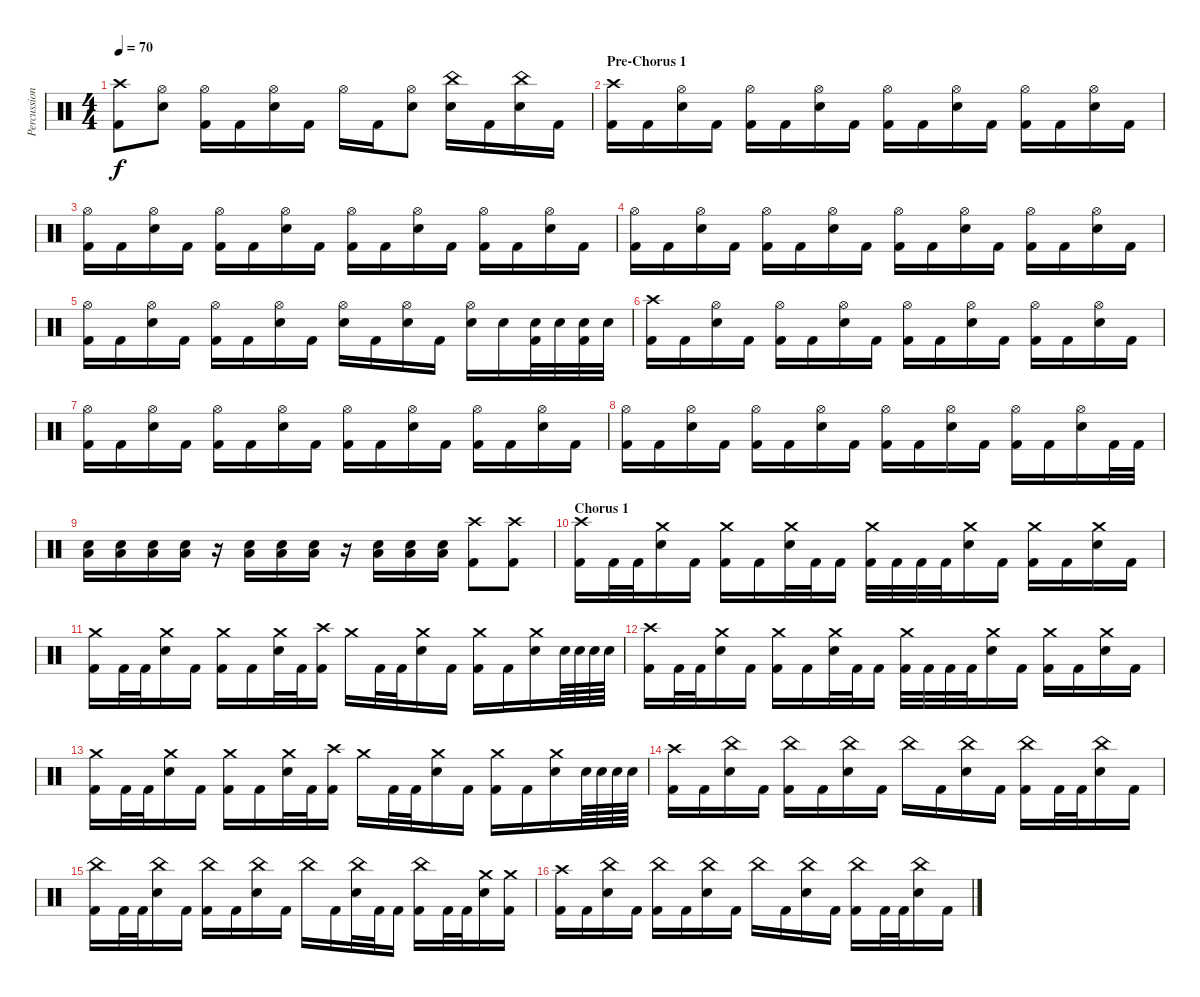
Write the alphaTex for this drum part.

\track ("Percussion" "Percussion") {instrument percussion}
\staff {score}
\articulation defaults
\ts (4 4)
\tempo 70
\clef neutral
\ks c
("Kick (hit) 2" "Crash high (hit)").8{dy f} ("Electric Snare (hit)" "Hi-Hat (open)").8 ("Kick (hit) 2" "Hi-Hat (open)").16 "Kick (hit) 2".16 ("Electric Snare (hit)" "Hi-Hat (open)").16 "Kick (hit) 2".16 "Hi-Hat (open)".16 "Kick (hit) 2".16 ("Electric Snare (hit)" "Hi-Hat (open)").8 ("Electric Snare (hit)" "China (hit)").16 "Kick (hit) 2".16 ("Electric Snare (hit)" "China (hit)").16 "Kick (hit) 2".16 |
\section ("" "Pre-Chorus 1")
("Kick (hit) 2" "Crash high (hit)").16 "Kick (hit) 2".16 ("Electric Snare (hit)" "Hi-Hat (open)").16 "Kick (hit) 2".16 ("Kick (hit) 2" "Hi-Hat (open)").16 "Kick (hit) 2".16 ("Electric Snare (hit)" "Hi-Hat (open)").16 "Kick (hit) 2".16 ("Kick (hit) 2" "Hi-Hat (open)").16 "Kick (hit) 2".16 ("Electric Snare (hit)" "Hi-Hat (open)").16 "Kick (hit) 2".16 ("Kick (hit) 2" "Hi-Hat (open)").16 "Kick (hit) 2".16 ("Electric Snare (hit)" "Hi-Hat (open)").16 "Kick (hit) 2".16 |
("Kick (hit) 2" "Hi-Hat (open)").16 "Kick (hit) 2".16 ("Electric Snare (hit)" "Hi-Hat (open)").16 "Kick (hit) 2".16 ("Kick (hit) 2" "Hi-Hat (open)").16 "Kick (hit) 2".16 ("Electric Snare (hit)" "Hi-Hat (open)").16 "Kick (hit) 2".16 ("Kick (hit) 2" "Hi-Hat (open)").16 "Kick (hit) 2".16 ("Electric Snare (hit)" "Hi-Hat (open)").16 "Kick (hit) 2".16 ("Kick (hit) 2" "Hi-Hat (open)").16 "Kick (hit) 2".16 ("Electric Snare (hit)" "Hi-Hat (open)").16 "Kick (hit) 2".16 |
("Kick (hit) 2" "Hi-Hat (open)").16 "Kick (hit) 2".16 ("Electric Snare (hit)" "Hi-Hat (open)").16 "Kick (hit) 2".16 ("Kick (hit) 2" "Hi-Hat (open)").16 "Kick (hit) 2".16 ("Electric Snare (hit)" "Hi-Hat (open)").16 "Kick (hit) 2".16 ("Kick (hit) 2" "Hi-Hat (open)").16 "Kick (hit) 2".16 ("Electric Snare (hit)" "Hi-Hat (open)").16 "Kick (hit) 2".16 ("Kick (hit) 2" "Hi-Hat (open)").16 "Kick (hit) 2".16 ("Electric Snare (hit)" "Hi-Hat (open)").16 "Kick (hit) 2".16 |
("Kick (hit) 2" "Hi-Hat (open)").16 "Kick (hit) 2".16 ("Electric Snare (hit)" "Hi-Hat (open)").16 "Kick (hit) 2".16 ("Kick (hit) 2" "Hi-Hat (open)").16 "Kick (hit) 2".16 ("Electric Snare (hit)" "Hi-Hat (open)").16 "Kick (hit) 2".16 ("Electric Snare (hit)" "Hi-Hat (open)").16 "Kick (hit) 2".16 ("Electric Snare (hit)" "Hi-Hat (open)").16 "Kick (hit) 2".16 ("Electric Snare (hit)" "Hi-Hat (open)").16 "Electric Snare (hit)".16 ("Electric Snare (hit)" "Kick (hit) 2").32 "Electric Snare (hit)".32 ("Electric Snare (hit)" "Kick (hit) 2").32 "Electric Snare (hit)".32 |
("Kick (hit) 2" "Crash high (hit)").16 "Kick (hit) 2".16 ("Electric Snare (hit)" "Hi-Hat (open)").16 "Kick (hit) 2".16 ("Kick (hit) 2" "Hi-Hat (open)").16 "Kick (hit) 2".16 ("Electric Snare (hit)" "Hi-Hat (open)").16 "Kick (hit) 2".16 ("Kick (hit) 2" "Hi-Hat (open)").16 "Kick (hit) 2".16 ("Electric Snare (hit)" "Hi-Hat (open)").16 "Kick (hit) 2".16 ("Kick (hit) 2" "Hi-Hat (open)").16 "Kick (hit) 2".16 ("Electric Snare (hit)" "Hi-Hat (open)").16 "Kick (hit) 2".16 |
("Kick (hit) 2" "Hi-Hat (open)").16 "Kick (hit) 2".16 ("Electric Snare (hit)" "Hi-Hat (open)").16 "Kick (hit) 2".16 ("Kick (hit) 2" "Hi-Hat (open)").16 "Kick (hit) 2".16 ("Electric Snare (hit)" "Hi-Hat (open)").16 "Kick (hit) 2".16 ("Kick (hit) 2" "Hi-Hat (open)").16 "Kick (hit) 2".16 ("Electric Snare (hit)" "Hi-Hat (open)").16 "Kick (hit) 2".16 ("Kick (hit) 2" "Hi-Hat (open)").16 "Kick (hit) 2".16 ("Electric Snare (hit)" "Hi-Hat (open)").16 "Kick (hit) 2".16 |
("Kick (hit) 2" "Hi-Hat (open)").16 "Kick (hit) 2".16 ("Electric Snare (hit)" "Hi-Hat (open)").16 "Kick (hit) 2".16 ("Kick (hit) 2" "Hi-Hat (open)").16 "Kick (hit) 2".16 ("Electric Snare (hit)" "Hi-Hat (open)").16 "Kick (hit) 2".16 ("Kick (hit) 2" "Hi-Hat (open)").16 "Kick (hit) 2".16 ("Electric Snare (hit)" "Hi-Hat (open)").16 "Kick (hit) 2".16 ("Kick (hit) 2" "Hi-Hat (open)").16 "Kick (hit) 2".16 ("Electric Snare (hit)" "Hi-Hat (open)").16 "Kick (hit) 2".32 "Kick (hit) 2".32 |
("Electric Snare (hit)" "Low Tom (hit)").16 ("Electric Snare (hit)" "Low Tom (hit)").16 ("Electric Snare (hit)" "Low Tom (hit)").16 ("Electric Snare (hit)" "Low Tom (hit)").16 r.16 ("Electric Snare (hit)" "Low Tom (hit)").16 ("Electric Snare (hit)" "Low Tom (hit)").16 ("Electric Snare (hit)" "Low Tom (hit)").16 r.16 ("Electric Snare (hit)" "Low Tom (hit)").16 ("Electric Snare (hit)" "Low Tom (hit)").16 ("Electric Snare (hit)" "Low Tom (hit)").16 ("Kick (hit) 2" "Crash high (hit)").8 ("Kick (hit) 2" "Crash high (hit)").8 |
\section ("" "Chorus 1")
("Kick (hit) 2" "Crash high (hit)").16 "Kick (hit) 2".32 "Kick (hit) 2".32 ("Electric Snare (hit)" "Crash medium (hit)").16 "Kick (hit) 2".16 ("Kick (hit) 2" "Crash medium (hit)").16 "Kick (hit) 2".16 ("Electric Snare (hit)" "Crash medium (hit)").32 "Kick (hit) 2".32 "Kick (hit) 2".16 ("Kick (hit) 2" "Crash medium (hit)").32 "Kick (hit) 2".32 "Kick (hit) 2".32 "Kick (hit) 2".32 ("Electric Snare (hit)" "Crash medium (hit)").16 "Kick (hit) 2".16 ("Kick (hit) 2" "Crash medium (hit)").16 "Kick (hit) 2".16 ("Electric Snare (hit)" "Crash medium (hit)").16 "Kick (hit) 2".16 |
("Kick (hit) 2" "Crash medium (hit)").16 "Kick (hit) 2".32 "Kick (hit) 2".32 ("Electric Snare (hit)" "Crash medium (hit)").16 "Kick (hit) 2".16 ("Kick (hit) 2" "Crash medium (hit)").16 "Kick (hit) 2".16 ("Electric Snare (hit)" "Crash medium (hit)").32 "Kick (hit) 2".32 ("Kick (hit) 2" "Crash high (hit)").16 "Crash medium (hit)".16 "Kick (hit) 2".32 "Kick (hit) 2".32 ("Electric Snare (hit)" "Crash medium (hit)").16 "Kick (hit) 2".16 ("Kick (hit) 2" "Crash medium (hit)").16 "Kick (hit) 2".16 ("Electric Snare (hit)" "Crash medium (hit)").16 "Electric Snare (hit)".64 "Electric Snare (hit)".64 "Electric Snare (hit)".64 "Electric Snare (hit)".64 |
("Kick (hit) 2" "Crash high (hit)").16 "Kick (hit) 2".32 "Kick (hit) 2".32 ("Electric Snare (hit)" "Crash medium (hit)").16 "Kick (hit) 2".16 ("Kick (hit) 2" "Crash medium (hit)").16 "Kick (hit) 2".16 ("Electric Snare (hit)" "Crash medium (hit)").32 "Kick (hit) 2".32 "Kick (hit) 2".16 ("Kick (hit) 2" "Crash medium (hit)").32 "Kick (hit) 2".32 "Kick (hit) 2".32 "Kick (hit) 2".32 ("Electric Snare (hit)" "Crash medium (hit)").16 "Kick (hit) 2".16 ("Kick (hit) 2" "Crash medium (hit)").16 "Kick (hit) 2".16 ("Electric Snare (hit)" "Crash medium (hit)").16 "Kick (hit) 2".16 |
("Kick (hit) 2" "Crash medium (hit)").16 "Kick (hit) 2".32 "Kick (hit) 2".32 ("Electric Snare (hit)" "Crash medium (hit)").16 "Kick (hit) 2".16 ("Kick (hit) 2" "Crash medium (hit)").16 "Kick (hit) 2".16 ("Electric Snare (hit)" "Crash medium (hit)").32 "Kick (hit) 2".32 ("Kick (hit) 2" "Crash high (hit)").16 "Crash medium (hit)".16 "Kick (hit) 2".32 "Kick (hit) 2".32 ("Electric Snare (hit)" "Crash medium (hit)").16 "Kick (hit) 2".16 ("Kick (hit) 2" "Crash medium (hit)").16 "Kick (hit) 2".16 ("Electric Snare (hit)" "Crash medium (hit)").16 "Electric Snare (hit)".64 "Electric Snare (hit)".64 "Electric Snare (hit)".64 "Electric Snare (hit)".64 |
("Kick (hit) 2" "Crash high (hit)").16 "Kick (hit) 2".16 ("Electric Snare (hit)" "China (hit)").16 "Kick (hit) 2".16 ("Kick (hit) 2" "China (hit)").16 "Kick (hit) 2".16 ("Electric Snare (hit)" "China (hit)").16 "Kick (hit) 2".16 "China (hit)".16 "Kick (hit) 2".16 ("Electric Snare (hit)" "China (hit)").16 "Kick (hit) 2".16 ("Kick (hit) 2" "China (hit)").16 "Kick (hit) 2".32 "Kick (hit) 2".32 ("Electric Snare (hit)" "China (hit)").16 "Kick (hit) 2".16 |
("Kick (hit) 2" "China (hit)").16 "Kick (hit) 2".32 "Kick (hit) 2".32 ("Electric Snare (hit)" "China (hit)").16 "Kick (hit) 2".16 ("Kick (hit) 2" "China (hit)").16 "Kick (hit) 2".16 ("Electric Snare (hit)" "China (hit)").16 "Kick (hit) 2".16 "China (hit)".16 "Kick (hit) 2".16 ("Electric Snare (hit)" "China (hit)").32 "Kick (hit) 2".32 "Kick (hit) 2".16 ("Kick (hit) 2" "China (hit)").16 "Kick (hit) 2".32 "Kick (hit) 2".32 ("Electric Snare (hit)" "Crash medium (hit)").16 ("Kick (hit) 2" "Crash medium (hit)").16 |
("Kick (hit) 2" "Crash high (hit)").16 "Kick (hit) 2".16 ("Electric Snare (hit)" "China (hit)").16 "Kick (hit) 2".16 ("Kick (hit) 2" "China (hit)").16 "Kick (hit) 2".16 ("Electric Snare (hit)" "China (hit)").16 "Kick (hit) 2".16 "China (hit)".16 "Kick (hit) 2".16 ("Electric Snare (hit)" "China (hit)").16 "Kick (hit) 2".16 ("Kick (hit) 2" "China (hit)").16 "Kick (hit) 2".32 "Kick (hit) 2".32 ("Electric Snare (hit)" "China (hit)").16 "Kick (hit) 2".16
